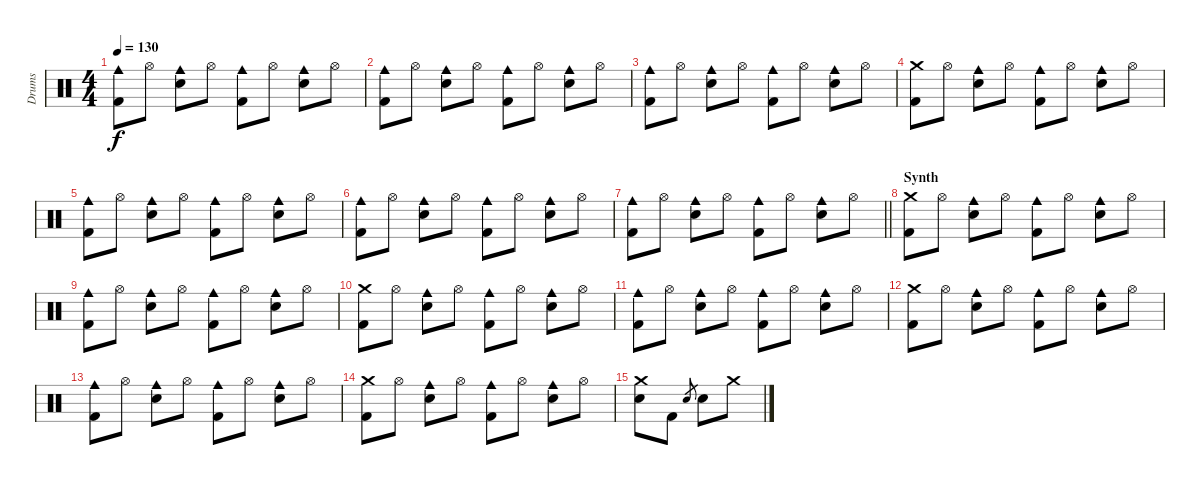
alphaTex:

\track ("Drums" "Drums") {instrument percussion}
\staff {score}
\articulation defaults
\ts (4 4)
\tempo 130
\clef neutral
\ks c
("Cowbell medium (hit)" "Kick (hit) 2").8{dy f} "Hi-Hat (open)".8 ("Cowbell medium (hit)" "Snare (hit) 2").8 "Hi-Hat (open)".8 ("Cowbell medium (hit)" "Kick (hit) 2").8 "Hi-Hat (open)".8 ("Cowbell medium (hit)" "Snare (hit) 2").8 "Hi-Hat (open)".8 |
("Cowbell medium (hit)" "Kick (hit) 2").8 "Hi-Hat (open)".8 ("Cowbell medium (hit)" "Snare (hit) 2").8 "Hi-Hat (open)".8 ("Cowbell medium (hit)" "Kick (hit) 2").8 "Hi-Hat (open)".8 ("Cowbell medium (hit)" "Snare (hit) 2").8 "Hi-Hat (open)".8 |
("Cowbell medium (hit)" "Kick (hit) 2").8 "Hi-Hat (open)".8 ("Cowbell medium (hit)" "Snare (hit) 2").8 "Hi-Hat (open)".8 ("Cowbell medium (hit)" "Kick (hit) 2").8 "Hi-Hat (open)".8 ("Cowbell medium (hit)" "Snare (hit) 2").8 "Hi-Hat (open)".8 |
("Crash medium (hit)" "Kick (hit) 2").8 "Hi-Hat (open)".8 ("Cowbell medium (hit)" "Snare (hit) 2").8 "Hi-Hat (open)".8 ("Cowbell medium (hit)" "Kick (hit) 2").8 "Hi-Hat (open)".8 ("Cowbell medium (hit)" "Snare (hit) 2").8 "Hi-Hat (open)".8 |
("Cowbell medium (hit)" "Kick (hit) 2").8 "Hi-Hat (open)".8 ("Cowbell medium (hit)" "Snare (hit) 2").8 "Hi-Hat (open)".8 ("Cowbell medium (hit)" "Kick (hit) 2").8 "Hi-Hat (open)".8 ("Cowbell medium (hit)" "Snare (hit) 2").8 "Hi-Hat (open)".8 |
("Cowbell medium (hit)" "Kick (hit) 2").8 "Hi-Hat (open)".8 ("Cowbell medium (hit)" "Snare (hit) 2").8 "Hi-Hat (open)".8 ("Cowbell medium (hit)" "Kick (hit) 2").8 "Hi-Hat (open)".8 ("Cowbell medium (hit)" "Snare (hit) 2").8 "Hi-Hat (open)".8 |
\barLineRight lightlight
("Cowbell medium (hit)" "Kick (hit) 2").8 "Hi-Hat (open)".8 ("Cowbell medium (hit)" "Snare (hit) 2").8 "Hi-Hat (open)".8 ("Cowbell medium (hit)" "Kick (hit) 2").8 "Hi-Hat (open)".8 ("Cowbell medium (hit)" "Snare (hit) 2").8 "Hi-Hat (open)".8 |
\section ("" "Synth")
("Crash medium (hit)" "Kick (hit) 2").8 "Hi-Hat (open)".8 ("Cowbell medium (hit)" "Snare (hit) 2").8 "Hi-Hat (open)".8 ("Cowbell medium (hit)" "Kick (hit) 2").8 "Hi-Hat (open)".8 ("Cowbell medium (hit)" "Snare (hit) 2").8 "Hi-Hat (open)".8 |
("Cowbell medium (hit)" "Kick (hit) 2").8 "Hi-Hat (open)".8 ("Cowbell medium (hit)" "Snare (hit) 2").8 "Hi-Hat (open)".8 ("Cowbell medium (hit)" "Kick (hit) 2").8 "Hi-Hat (open)".8 ("Cowbell medium (hit)" "Snare (hit) 2").8 "Hi-Hat (open)".8 |
("Crash medium (hit)" "Kick (hit) 2").8 "Hi-Hat (open)".8 ("Cowbell medium (hit)" "Snare (hit) 2").8 "Hi-Hat (open)".8 ("Cowbell medium (hit)" "Kick (hit) 2").8 "Hi-Hat (open)".8 ("Cowbell medium (hit)" "Snare (hit) 2").8 "Hi-Hat (open)".8 |
("Cowbell medium (hit)" "Kick (hit) 2").8 "Hi-Hat (open)".8 ("Cowbell medium (hit)" "Snare (hit) 2").8 "Hi-Hat (open)".8 ("Cowbell medium (hit)" "Kick (hit) 2").8 "Hi-Hat (open)".8 ("Cowbell medium (hit)" "Snare (hit) 2").8 "Hi-Hat (open)".8 |
("Crash medium (hit)" "Kick (hit) 2").8 "Hi-Hat (open)".8 ("Cowbell medium (hit)" "Snare (hit) 2").8 "Hi-Hat (open)".8 ("Cowbell medium (hit)" "Kick (hit) 2").8 "Hi-Hat (open)".8 ("Cowbell medium (hit)" "Snare (hit) 2").8 "Hi-Hat (open)".8 |
("Cowbell medium (hit)" "Kick (hit) 2").8 "Hi-Hat (open)".8 ("Cowbell medium (hit)" "Snare (hit) 2").8 "Hi-Hat (open)".8 ("Cowbell medium (hit)" "Kick (hit) 2").8 "Hi-Hat (open)".8 ("Cowbell medium (hit)" "Snare (hit) 2").8 "Hi-Hat (open)".8 |
("Crash medium (hit)" "Kick (hit) 2").8 "Hi-Hat (open)".8 ("Cowbell medium (hit)" "Snare (hit) 2").8 "Hi-Hat (open)".8 ("Cowbell medium (hit)" "Kick (hit) 2").8 "Hi-Hat (open)".8 ("Cowbell medium (hit)" "Snare (hit) 2").8 "Hi-Hat (open)".8 |
("Crash medium (hit)" "Snare (hit) 2").8 "Kick (hit) 2".8 "Snare (hit) 2".8{gr} "Snare (hit) 2".8 "Crash medium (hit)".8
